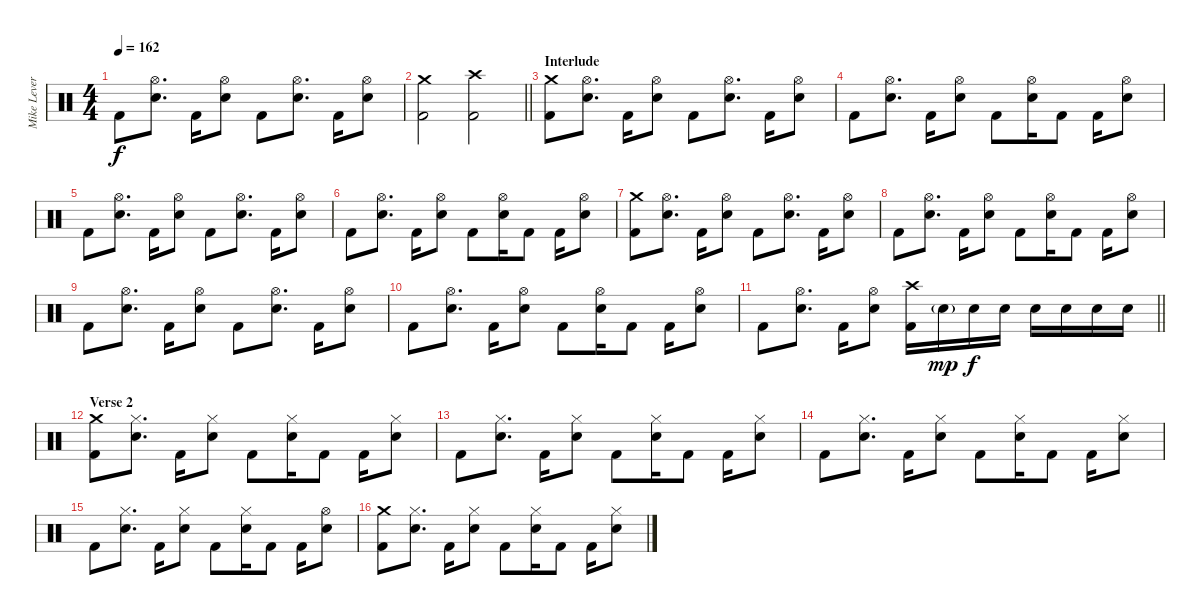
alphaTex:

\track ("Mike Leverence - Drums" "Mike Lever") {instrument percussion}
\staff {score}
\articulation defaults
\ts (4 4)
\tempo 162
\clef neutral
\ks c "Kick (hit) 2".8{dy f}
("Hi-Hat (open)" "Electric Snare (hit)").8{d} "Kick (hit) 2".16 ("Hi-Hat (open)" "Electric Snare (hit)").8 "Kick (hit) 2".8 ("Hi-Hat (open)" "Electric Snare (hit)").8{d} "Kick (hit) 2".16 ("Hi-Hat (open)" "Electric Snare (hit)").8 |
\barLineRight lightlight
("Crash medium (hit)" "Kick (hit) 2").2 ("Crash high (hit)" "Kick (hit) 2").2 |
\section ("" "Interlude")
("Crash medium (hit)" "Kick (hit) 2").8 ("Hi-Hat (open)" "Electric Snare (hit)").8{d} "Kick (hit) 2".16 ("Hi-Hat (open)" "Electric Snare (hit)").8 "Kick (hit) 2".8 ("Hi-Hat (open)" "Electric Snare (hit)").8{d} "Kick (hit) 2".16 ("Hi-Hat (open)" "Electric Snare (hit)").8 |
"Kick (hit) 2".8 ("Hi-Hat (open)" "Electric Snare (hit)").8{d} "Kick (hit) 2".16 ("Hi-Hat (open)" "Electric Snare (hit)").8 "Kick (hit) 2".8 ("Hi-Hat (open)" "Electric Snare (hit)").16 "Kick (hit) 2".8 "Kick (hit) 2".16 ("Hi-Hat (open)" "Electric Snare (hit)").8 |
"Kick (hit) 2".8 ("Hi-Hat (open)" "Electric Snare (hit)").8{d} "Kick (hit) 2".16 ("Hi-Hat (open)" "Electric Snare (hit)").8 "Kick (hit) 2".8 ("Hi-Hat (open)" "Electric Snare (hit)").8{d} "Kick (hit) 2".16 ("Hi-Hat (open)" "Electric Snare (hit)").8 |
"Kick (hit) 2".8 ("Hi-Hat (open)" "Electric Snare (hit)").8{d} "Kick (hit) 2".16 ("Hi-Hat (open)" "Electric Snare (hit)").8 "Kick (hit) 2".8 ("Hi-Hat (open)" "Electric Snare (hit)").16 "Kick (hit) 2".8 "Kick (hit) 2".16 ("Hi-Hat (open)" "Electric Snare (hit)").8 |
("Crash medium (hit)" "Kick (hit) 2").8 ("Hi-Hat (open)" "Electric Snare (hit)").8{d} "Kick (hit) 2".16 ("Hi-Hat (open)" "Electric Snare (hit)").8 "Kick (hit) 2".8 ("Hi-Hat (open)" "Electric Snare (hit)").8{d} "Kick (hit) 2".16 ("Hi-Hat (open)" "Electric Snare (hit)").8 |
"Kick (hit) 2".8 ("Hi-Hat (open)" "Electric Snare (hit)").8{d} "Kick (hit) 2".16 ("Hi-Hat (open)" "Electric Snare (hit)").8 "Kick (hit) 2".8 ("Hi-Hat (open)" "Electric Snare (hit)").16 "Kick (hit) 2".8 "Kick (hit) 2".16 ("Hi-Hat (open)" "Electric Snare (hit)").8 |
"Kick (hit) 2".8 ("Hi-Hat (open)" "Electric Snare (hit)").8{d} "Kick (hit) 2".16 ("Hi-Hat (open)" "Electric Snare (hit)").8 "Kick (hit) 2".8 ("Hi-Hat (open)" "Electric Snare (hit)").8{d} "Kick (hit) 2".16 ("Hi-Hat (open)" "Electric Snare (hit)").8 |
"Kick (hit) 2".8 ("Hi-Hat (open)" "Electric Snare (hit)").8{d} "Kick (hit) 2".16 ("Hi-Hat (open)" "Electric Snare (hit)").8 "Kick (hit) 2".8 ("Hi-Hat (open)" "Electric Snare (hit)").16 "Kick (hit) 2".8 "Kick (hit) 2".16 ("Hi-Hat (open)" "Electric Snare (hit)").8 |
\barLineRight lightlight "Kick (hit) 2".8
("Hi-Hat (open)" "Electric Snare (hit)").8{d} "Kick (hit) 2".16 ("Hi-Hat (open)" "Electric Snare (hit)").8 ("Crash high (hit)" "Kick (hit) 2").16 "Electric Snare (hit)"{g}.16{dy mp} "Electric Snare (hit)".16{dy f} "Electric Snare (hit)".16 "Electric Snare (hit)".16 "Electric Snare (hit)".16 "Electric Snare (hit)".16 "Electric Snare (hit)".16 |
\section ("" "Verse 2")
("Crash medium (hit)" "Kick (hit) 2").8 ("Hi-Hat (closed)" "Electric Snare (hit)").8{d} "Kick (hit) 2".16 ("Hi-Hat (closed)" "Electric Snare (hit)").8 "Kick (hit) 2".8 ("Hi-Hat (closed)" "Electric Snare (hit)").16 "Kick (hit) 2".8 "Kick (hit) 2".16 ("Hi-Hat (closed)" "Electric Snare (hit)").8 |
"Kick (hit) 2".8 ("Hi-Hat (closed)" "Electric Snare (hit)").8{d} "Kick (hit) 2".16 ("Hi-Hat (closed)" "Electric Snare (hit)").8 "Kick (hit) 2".8 ("Hi-Hat (closed)" "Electric Snare (hit)").16 "Kick (hit) 2".8 "Kick (hit) 2".16 ("Hi-Hat (closed)" "Electric Snare (hit)").8 |
"Kick (hit) 2".8 ("Hi-Hat (closed)" "Electric Snare (hit)").8{d} "Kick (hit) 2".16 ("Hi-Hat (closed)" "Electric Snare (hit)").8 "Kick (hit) 2".8 ("Hi-Hat (closed)" "Electric Snare (hit)").16 "Kick (hit) 2".8 "Kick (hit) 2".16 ("Hi-Hat (closed)" "Electric Snare (hit)").8 |
"Kick (hit) 2".8 ("Hi-Hat (closed)" "Electric Snare (hit)").8{d} "Kick (hit) 2".16 ("Hi-Hat (closed)" "Electric Snare (hit)").8 "Kick (hit) 2".8 ("Hi-Hat (closed)" "Electric Snare (hit)").16 "Kick (hit) 2".8 "Kick (hit) 2".16 ("Hi-Hat (open)" "Electric Snare (hit)").8 |
("Crash medium (hit)" "Kick (hit) 2").8 ("Hi-Hat (closed)" "Electric Snare (hit)").8{d} "Kick (hit) 2".16 ("Hi-Hat (closed)" "Electric Snare (hit)").8 "Kick (hit) 2".8 ("Hi-Hat (closed)" "Electric Snare (hit)").16 "Kick (hit) 2".8 "Kick (hit) 2".16 ("Hi-Hat (closed)" "Electric Snare (hit)").8
